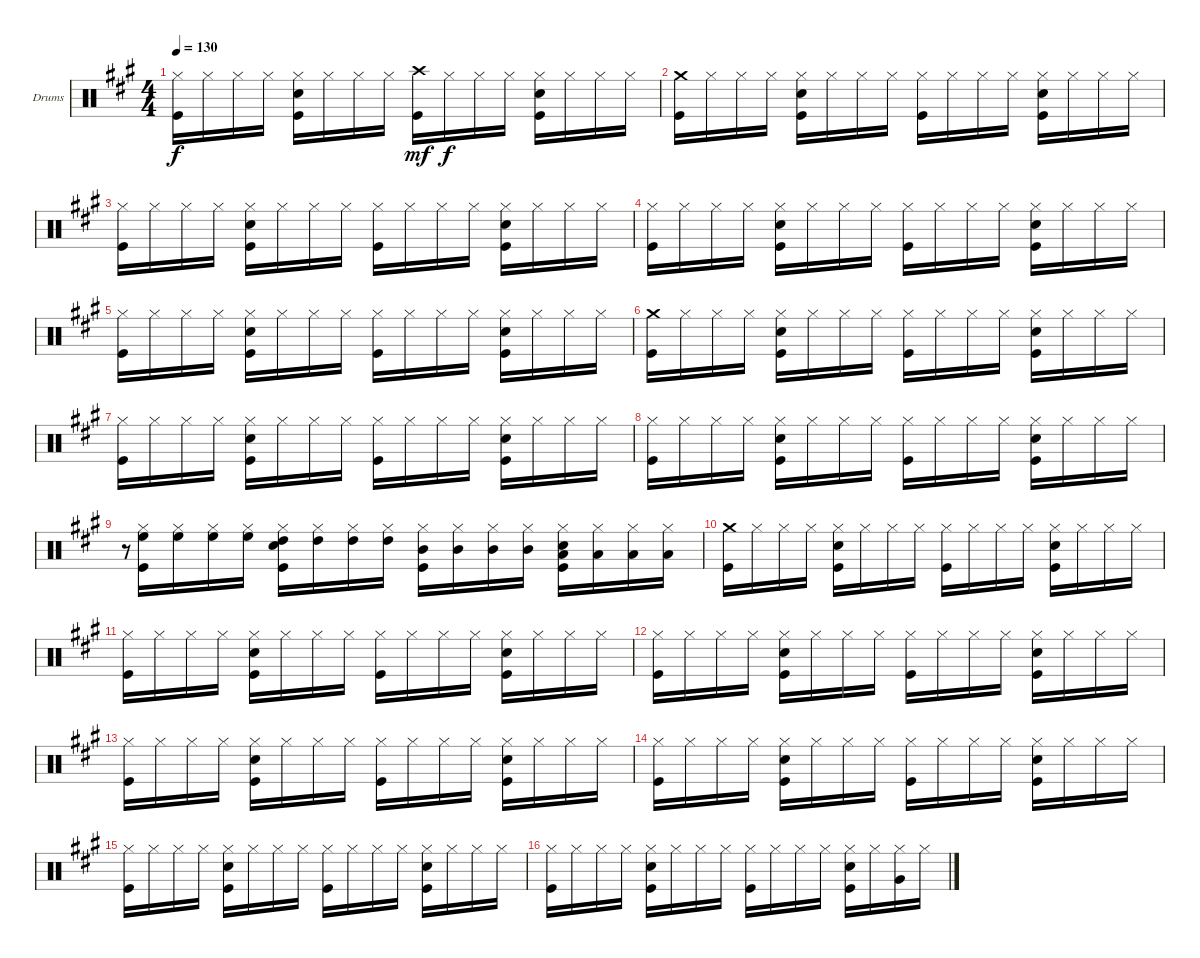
\bracketExtendMode groupsimilarinstruments
\firstSystemTrackNameOrientation horizontal
\otherSystemsTrackNameOrientation horizontal
\track ("DRUMS" "Drums") {instrument percussion}
\staff {score}
\articulation defaults
\ts (4 4)
\tempo 130
\clef neutral
\ks f#minor
("Hi-Hat (closed)" "Kick (hit)").16{dy f} "Hi-Hat (closed)".16 "Hi-Hat (closed)".16 "Hi-Hat (closed)".16 ("Hi-Hat (closed)" "Snare (hit) 2" "Kick (hit)").16 "Hi-Hat (closed)".16 "Hi-Hat (closed)".16 "Hi-Hat (closed)".16 ("Crash high (hit)" "Kick (hit)").16{dy mf} "Hi-Hat (closed)".16{dy f} "Hi-Hat (closed)".16 "Hi-Hat (closed)".16 ("Hi-Hat (closed)" "Snare (hit) 2" "Kick (hit)").16 "Hi-Hat (closed)".16 "Hi-Hat (closed)".16 "Hi-Hat (closed)".16 |
("Kick (hit)" "Crash medium (hit)").16 "Hi-Hat (closed)".16 "Hi-Hat (closed)".16 "Hi-Hat (closed)".16 ("Hi-Hat (closed)" "Snare (hit) 2" "Kick (hit)").16 "Hi-Hat (closed)".16 "Hi-Hat (closed)".16 "Hi-Hat (closed)".16 ("Hi-Hat (closed)" "Kick (hit)").16 "Hi-Hat (closed)".16 "Hi-Hat (closed)".16 "Hi-Hat (closed)".16 ("Hi-Hat (closed)" "Snare (hit) 2" "Kick (hit)").16 "Hi-Hat (closed)".16 "Hi-Hat (closed)".16 "Hi-Hat (closed)".16 |
("Hi-Hat (closed)" "Kick (hit)").16 "Hi-Hat (closed)".16 "Hi-Hat (closed)".16 "Hi-Hat (closed)".16 ("Hi-Hat (closed)" "Snare (hit) 2" "Kick (hit)").16 "Hi-Hat (closed)".16 "Hi-Hat (closed)".16 "Hi-Hat (closed)".16 ("Hi-Hat (closed)" "Kick (hit)").16 "Hi-Hat (closed)".16 "Hi-Hat (closed)".16 "Hi-Hat (closed)".16 ("Hi-Hat (closed)" "Snare (hit) 2" "Kick (hit)").16 "Hi-Hat (closed)".16 "Hi-Hat (closed)".16 "Hi-Hat (closed)".16 |
("Hi-Hat (closed)" "Kick (hit)").16 "Hi-Hat (closed)".16 "Hi-Hat (closed)".16 "Hi-Hat (closed)".16 ("Hi-Hat (closed)" "Snare (hit) 2" "Kick (hit)").16 "Hi-Hat (closed)".16 "Hi-Hat (closed)".16 "Hi-Hat (closed)".16 ("Hi-Hat (closed)" "Kick (hit)").16 "Hi-Hat (closed)".16 "Hi-Hat (closed)".16 "Hi-Hat (closed)".16 ("Hi-Hat (closed)" "Snare (hit) 2" "Kick (hit)").16 "Hi-Hat (closed)".16 "Hi-Hat (closed)".16 "Hi-Hat (closed)".16 |
("Hi-Hat (closed)" "Kick (hit)").16 "Hi-Hat (closed)".16 "Hi-Hat (closed)".16 "Hi-Hat (closed)".16 ("Hi-Hat (closed)" "Snare (hit) 2" "Kick (hit)").16 "Hi-Hat (closed)".16 "Hi-Hat (closed)".16 "Hi-Hat (closed)".16 ("Hi-Hat (closed)" "Kick (hit)").16 "Hi-Hat (closed)".16 "Hi-Hat (closed)".16 "Hi-Hat (closed)".16 ("Hi-Hat (closed)" "Snare (hit) 2" "Kick (hit)").16 "Hi-Hat (closed)".16 "Hi-Hat (closed)".16 "Hi-Hat (closed)".16 |
("Kick (hit)" "Crash medium (hit)").16 "Hi-Hat (closed)".16 "Hi-Hat (closed)".16 "Hi-Hat (closed)".16 ("Hi-Hat (closed)" "Snare (hit) 2" "Kick (hit)").16 "Hi-Hat (closed)".16 "Hi-Hat (closed)".16 "Hi-Hat (closed)".16 ("Hi-Hat (closed)" "Kick (hit)").16 "Hi-Hat (closed)".16 "Hi-Hat (closed)".16 "Hi-Hat (closed)".16 ("Hi-Hat (closed)" "Snare (hit) 2" "Kick (hit)").16 "Hi-Hat (closed)".16 "Hi-Hat (closed)".16 "Hi-Hat (closed)".16 |
("Hi-Hat (closed)" "Kick (hit)").16 "Hi-Hat (closed)".16 "Hi-Hat (closed)".16 "Hi-Hat (closed)".16 ("Hi-Hat (closed)" "Snare (hit) 2" "Kick (hit)").16 "Hi-Hat (closed)".16 "Hi-Hat (closed)".16 "Hi-Hat (closed)".16 ("Hi-Hat (closed)" "Kick (hit)").16 "Hi-Hat (closed)".16 "Hi-Hat (closed)".16 "Hi-Hat (closed)".16 ("Hi-Hat (closed)" "Snare (hit) 2" "Kick (hit)").16 "Hi-Hat (closed)".16 "Hi-Hat (closed)".16 "Hi-Hat (closed)".16 |
("Hi-Hat (closed)" "Kick (hit)").16 "Hi-Hat (closed)".16 "Hi-Hat (closed)".16 "Hi-Hat (closed)".16 ("Hi-Hat (closed)" "Snare (hit) 2" "Kick (hit)").16 "Hi-Hat (closed)".16 "Hi-Hat (closed)".16 "Hi-Hat (closed)".16 ("Hi-Hat (closed)" "Kick (hit)").16 "Hi-Hat (closed)".16 "Hi-Hat (closed)".16 "Hi-Hat (closed)".16 ("Hi-Hat (closed)" "Snare (hit) 2" "Kick (hit)").16 "Hi-Hat (closed)".16 "Hi-Hat (closed)".16 "Hi-Hat (closed)".16 |
r.8{gr} ("Hi-Hat (closed)" "Kick (hit)" "High Floor Tom (hit)").16 ("Hi-Hat (closed)" "High Floor Tom (hit)").16 ("Hi-Hat (closed)" "High Floor Tom (hit)").16 ("Hi-Hat (closed)" "High Floor Tom (hit)").16 ("Hi-Hat (closed)" "Snare (hit) 2" "Kick (hit)" "High Tom (hit)").16 ("Hi-Hat (closed)" "High Tom (hit)").16 ("Hi-Hat (closed)" "High Tom (hit)").16 ("Hi-Hat (closed)" "High Tom (hit)").16 ("Hi-Hat (closed)" "Kick (hit)" "Mid Tom (hit)").16 ("Hi-Hat (closed)" "Mid Tom (hit)").16 ("Hi-Hat (closed)" "Mid Tom (hit)").16 ("Hi-Hat (closed)" "Mid Tom (hit)").16 ("Hi-Hat (closed)" "Snare (hit) 2" "Kick (hit)" "Low Tom (hit)").16 ("Hi-Hat (closed)" "Low Tom (hit)").16 ("Hi-Hat (closed)" "Low Tom (hit)").16 ("Hi-Hat (closed)" "Low Tom (hit)").16 |
("Kick (hit)" "Crash medium (hit)").16 "Hi-Hat (closed)".16 "Hi-Hat (closed)".16 "Hi-Hat (closed)".16 ("Hi-Hat (closed)" "Snare (hit) 2" "Kick (hit)").16 "Hi-Hat (closed)".16 "Hi-Hat (closed)".16 "Hi-Hat (closed)".16 ("Hi-Hat (closed)" "Kick (hit)").16 "Hi-Hat (closed)".16 "Hi-Hat (closed)".16 "Hi-Hat (closed)".16 ("Hi-Hat (closed)" "Snare (hit) 2" "Kick (hit)").16 "Hi-Hat (closed)".16 "Hi-Hat (closed)".16 "Hi-Hat (closed)".16 |
("Hi-Hat (closed)" "Kick (hit)").16 "Hi-Hat (closed)".16 "Hi-Hat (closed)".16 "Hi-Hat (closed)".16 ("Hi-Hat (closed)" "Snare (hit) 2" "Kick (hit)").16 "Hi-Hat (closed)".16 "Hi-Hat (closed)".16 "Hi-Hat (closed)".16 ("Hi-Hat (closed)" "Kick (hit)").16 "Hi-Hat (closed)".16 "Hi-Hat (closed)".16 "Hi-Hat (closed)".16 ("Hi-Hat (closed)" "Snare (hit) 2" "Kick (hit)").16 "Hi-Hat (closed)".16 "Hi-Hat (closed)".16 "Hi-Hat (closed)".16 |
("Hi-Hat (closed)" "Kick (hit)").16 "Hi-Hat (closed)".16 "Hi-Hat (closed)".16 "Hi-Hat (closed)".16 ("Hi-Hat (closed)" "Snare (hit) 2" "Kick (hit)").16 "Hi-Hat (closed)".16 "Hi-Hat (closed)".16 "Hi-Hat (closed)".16 ("Hi-Hat (closed)" "Kick (hit)").16 "Hi-Hat (closed)".16 "Hi-Hat (closed)".16 "Hi-Hat (closed)".16 ("Hi-Hat (closed)" "Snare (hit) 2" "Kick (hit)").16 "Hi-Hat (closed)".16 "Hi-Hat (closed)".16 "Hi-Hat (closed)".16 |
("Hi-Hat (closed)" "Kick (hit)").16 "Hi-Hat (closed)".16 "Hi-Hat (closed)".16 "Hi-Hat (closed)".16 ("Hi-Hat (closed)" "Snare (hit) 2" "Kick (hit)").16 "Hi-Hat (closed)".16 "Hi-Hat (closed)".16 "Hi-Hat (closed)".16 ("Hi-Hat (closed)" "Kick (hit)").16 "Hi-Hat (closed)".16 "Hi-Hat (closed)".16 "Hi-Hat (closed)".16 ("Hi-Hat (closed)" "Snare (hit) 2" "Kick (hit)").16 "Hi-Hat (closed)".16 "Hi-Hat (closed)".16 "Hi-Hat (closed)".16 |
("Hi-Hat (closed)" "Kick (hit)").16 "Hi-Hat (closed)".16 "Hi-Hat (closed)".16 "Hi-Hat (closed)".16 ("Hi-Hat (closed)" "Snare (hit) 2" "Kick (hit)").16 "Hi-Hat (closed)".16 "Hi-Hat (closed)".16 "Hi-Hat (closed)".16 ("Hi-Hat (closed)" "Kick (hit)").16 "Hi-Hat (closed)".16 "Hi-Hat (closed)".16 "Hi-Hat (closed)".16 ("Hi-Hat (closed)" "Snare (hit) 2" "Kick (hit)").16 "Hi-Hat (closed)".16 "Hi-Hat (closed)".16 "Hi-Hat (closed)".16 |
("Hi-Hat (closed)" "Kick (hit)").16 "Hi-Hat (closed)".16 "Hi-Hat (closed)".16 "Hi-Hat (closed)".16 ("Hi-Hat (closed)" "Snare (hit) 2" "Kick (hit)").16 "Hi-Hat (closed)".16 "Hi-Hat (closed)".16 "Hi-Hat (closed)".16 ("Hi-Hat (closed)" "Kick (hit)").16 "Hi-Hat (closed)".16 "Hi-Hat (closed)".16 "Hi-Hat (closed)".16 ("Hi-Hat (closed)" "Snare (hit) 2" "Kick (hit)").16 "Hi-Hat (closed)".16 "Hi-Hat (closed)".16 "Hi-Hat (closed)".16 |
("Hi-Hat (closed)" "Kick (hit)").16 "Hi-Hat (closed)".16 "Hi-Hat (closed)".16 "Hi-Hat (closed)".16 ("Hi-Hat (closed)" "Snare (hit) 2" "Kick (hit)").16 "Hi-Hat (closed)".16 "Hi-Hat (closed)".16 "Hi-Hat (closed)".16 ("Hi-Hat (closed)" "Kick (hit)").16 "Hi-Hat (closed)".16 "Hi-Hat (closed)".16 "Hi-Hat (closed)".16 ("Hi-Hat (closed)" "Snare (hit) 2" "Kick (hit)").16 "Hi-Hat (closed)".16 ("Hi-Hat (closed)" "Very Low Tom (hit)").16 "Hi-Hat (closed)".16
